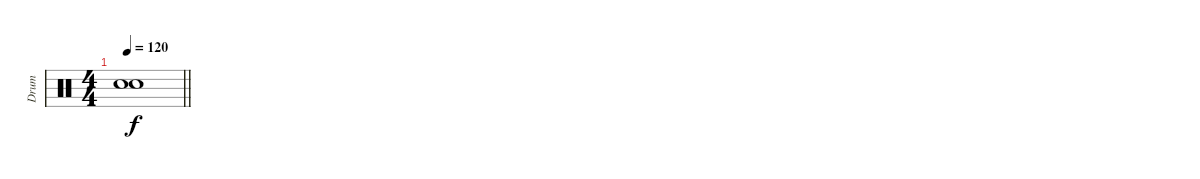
\track ("Drum" "Drum") {instrument percussion}
\staff {score}
\articulation defaults
\ts (4 4)
\tempo 120
\clef neutral
\barLineRight lightlight
\ks c
("Snare (hit)"{t} "Snare (hit)"{t}).1{dy f}
